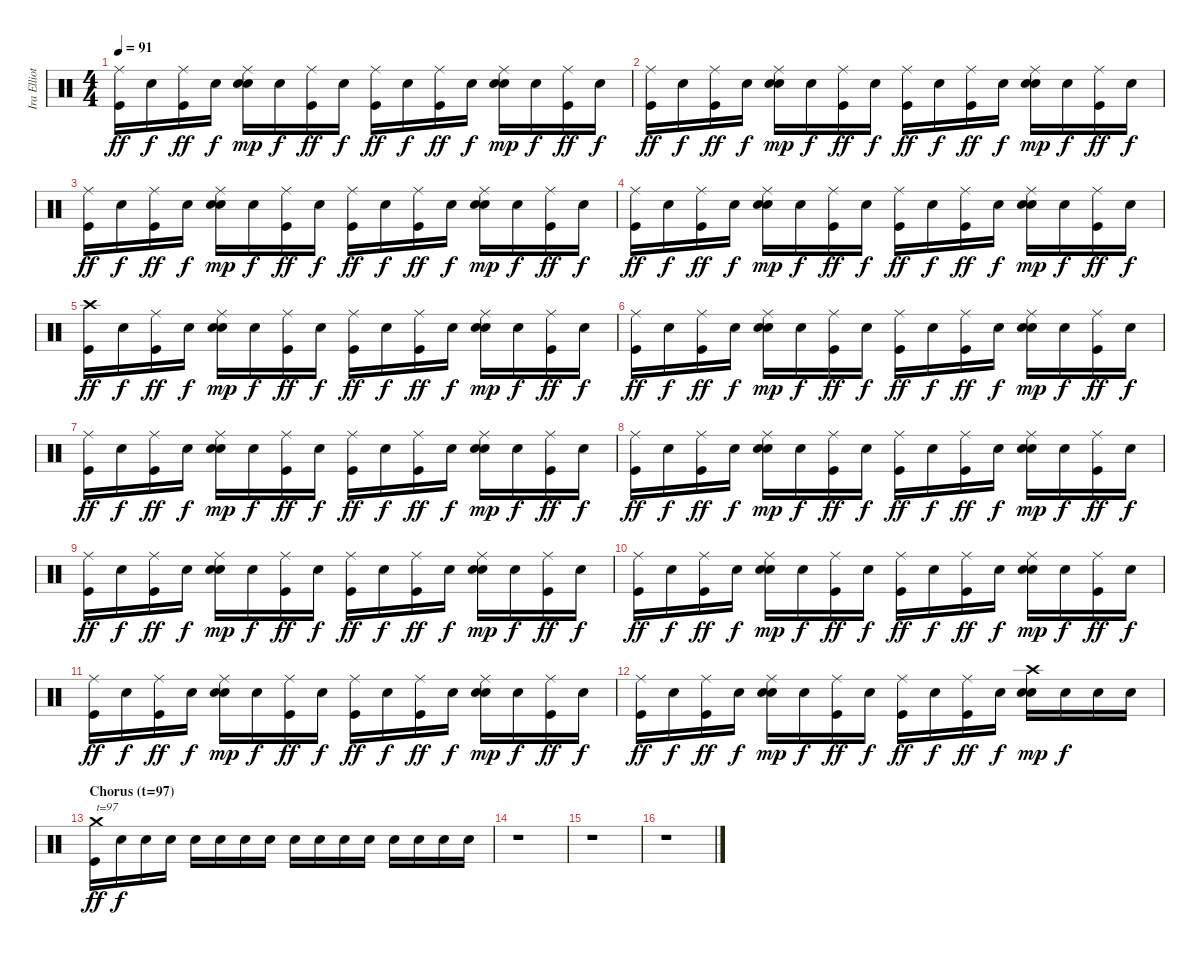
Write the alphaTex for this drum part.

\track ("Ira Elliot - Drums" "Ira Elliot") {instrument percussion}
\staff {score}
\articulation defaults
\ts (4 4)
\tempo 91
\clef neutral
\ks c
("Ride (middle)" "Kick (hit)").16{dy ff} "Snare (hit)".16{dy f} ("Ride (middle)" "Kick (hit)").16{dy ff} "Snare (hit)".16{dy f} ("Ride (middle)" "Electric Snare (hit)" "Snare (hit) 2").16{dy mp} "Snare (hit)".16{dy f} ("Ride (middle)" "Kick (hit)").16{dy ff} "Snare (hit)".16{dy f} ("Ride (middle)" "Kick (hit)").16{dy ff} "Snare (hit)".16{dy f} ("Ride (middle)" "Kick (hit)").16{dy ff} "Snare (hit)".16{dy f} ("Ride (middle)" "Electric Snare (hit)" "Snare (hit) 2").16{dy mp} "Snare (hit)".16{dy f} ("Ride (middle)" "Kick (hit)").16{dy ff} "Snare (hit)".16{dy f} |
("Ride (middle)" "Kick (hit)").16{dy ff} "Snare (hit)".16{dy f} ("Ride (middle)" "Kick (hit)").16{dy ff} "Snare (hit)".16{dy f} ("Ride (middle)" "Electric Snare (hit)" "Snare (hit) 2").16{dy mp} "Snare (hit)".16{dy f} ("Ride (middle)" "Kick (hit)").16{dy ff} "Snare (hit)".16{dy f} ("Ride (middle)" "Kick (hit)").16{dy ff} "Snare (hit)".16{dy f} ("Ride (middle)" "Kick (hit)").16{dy ff} "Snare (hit)".16{dy f} ("Ride (middle)" "Electric Snare (hit)" "Snare (hit) 2").16{dy mp} "Snare (hit)".16{dy f} ("Ride (middle)" "Kick (hit)").16{dy ff} "Snare (hit)".16{dy f} |
("Ride (middle)" "Kick (hit)").16{dy ff} "Snare (hit)".16{dy f} ("Ride (middle)" "Kick (hit)").16{dy ff} "Snare (hit)".16{dy f} ("Ride (middle)" "Electric Snare (hit)" "Snare (hit) 2").16{dy mp} "Snare (hit)".16{dy f} ("Ride (middle)" "Kick (hit)").16{dy ff} "Snare (hit)".16{dy f} ("Ride (middle)" "Kick (hit)").16{dy ff} "Snare (hit)".16{dy f} ("Ride (middle)" "Kick (hit)").16{dy ff} "Snare (hit)".16{dy f} ("Ride (middle)" "Electric Snare (hit)" "Snare (hit) 2").16{dy mp} "Snare (hit)".16{dy f} ("Ride (middle)" "Kick (hit)").16{dy ff} "Snare (hit)".16{dy f} |
("Ride (middle)" "Kick (hit)").16{dy ff} "Snare (hit)".16{dy f} ("Ride (middle)" "Kick (hit)").16{dy ff} "Snare (hit)".16{dy f} ("Ride (middle)" "Electric Snare (hit)" "Snare (hit) 2").16{dy mp} "Snare (hit)".16{dy f} ("Ride (middle)" "Kick (hit)").16{dy ff} "Snare (hit)".16{dy f} ("Ride (middle)" "Kick (hit)").16{dy ff} "Snare (hit)".16{dy f} ("Ride (middle)" "Kick (hit)").16{dy ff} "Snare (hit)".16{dy f} ("Ride (middle)" "Electric Snare (hit)" "Snare (hit) 2").16{dy mp} "Snare (hit)".16{dy f} ("Ride (middle)" "Kick (hit)").16{dy ff} "Snare (hit)".16{dy f} |
("Crash high (hit)" "Kick (hit)").16{dy ff} "Snare (hit)".16{dy f} ("Ride (middle)" "Kick (hit)").16{dy ff} "Snare (hit)".16{dy f} ("Ride (middle)" "Electric Snare (hit)" "Snare (hit) 2").16{dy mp} "Snare (hit)".16{dy f} ("Ride (middle)" "Kick (hit)").16{dy ff} "Snare (hit)".16{dy f} ("Ride (middle)" "Kick (hit)").16{dy ff} "Snare (hit)".16{dy f} ("Ride (middle)" "Kick (hit)").16{dy ff} "Snare (hit)".16{dy f} ("Ride (middle)" "Electric Snare (hit)" "Snare (hit) 2").16{dy mp} "Snare (hit)".16{dy f} ("Ride (middle)" "Kick (hit)").16{dy ff} "Snare (hit)".16{dy f} |
("Ride (middle)" "Kick (hit)").16{dy ff} "Snare (hit)".16{dy f} ("Ride (middle)" "Kick (hit)").16{dy ff} "Snare (hit)".16{dy f} ("Ride (middle)" "Electric Snare (hit)" "Snare (hit) 2").16{dy mp} "Snare (hit)".16{dy f} ("Ride (middle)" "Kick (hit)").16{dy ff} "Snare (hit)".16{dy f} ("Ride (middle)" "Kick (hit)").16{dy ff} "Snare (hit)".16{dy f} ("Ride (middle)" "Kick (hit)").16{dy ff} "Snare (hit)".16{dy f} ("Ride (middle)" "Electric Snare (hit)" "Snare (hit) 2").16{dy mp} "Snare (hit)".16{dy f} ("Ride (middle)" "Kick (hit)").16{dy ff} "Snare (hit)".16{dy f} |
("Ride (middle)" "Kick (hit)").16{dy ff} "Snare (hit)".16{dy f} ("Ride (middle)" "Kick (hit)").16{dy ff} "Snare (hit)".16{dy f} ("Ride (middle)" "Electric Snare (hit)" "Snare (hit) 2").16{dy mp} "Snare (hit)".16{dy f} ("Ride (middle)" "Kick (hit)").16{dy ff} "Snare (hit)".16{dy f} ("Ride (middle)" "Kick (hit)").16{dy ff} "Snare (hit)".16{dy f} ("Ride (middle)" "Kick (hit)").16{dy ff} "Snare (hit)".16{dy f} ("Ride (middle)" "Electric Snare (hit)" "Snare (hit) 2").16{dy mp} "Snare (hit)".16{dy f} ("Ride (middle)" "Kick (hit)").16{dy ff} "Snare (hit)".16{dy f} |
("Ride (middle)" "Kick (hit)").16{dy ff} "Snare (hit)".16{dy f} ("Ride (middle)" "Kick (hit)").16{dy ff} "Snare (hit)".16{dy f} ("Ride (middle)" "Electric Snare (hit)" "Snare (hit) 2").16{dy mp} "Snare (hit)".16{dy f} ("Ride (middle)" "Kick (hit)").16{dy ff} "Snare (hit)".16{dy f} ("Ride (middle)" "Kick (hit)").16{dy ff} "Snare (hit)".16{dy f} ("Ride (middle)" "Kick (hit)").16{dy ff} "Snare (hit)".16{dy f} ("Ride (middle)" "Electric Snare (hit)" "Snare (hit) 2").16{dy mp} "Snare (hit)".16{dy f} ("Ride (middle)" "Kick (hit)").16{dy ff} "Snare (hit)".16{dy f} |
("Ride (middle)" "Kick (hit)").16{dy ff} "Snare (hit)".16{dy f} ("Ride (middle)" "Kick (hit)").16{dy ff} "Snare (hit)".16{dy f} ("Ride (middle)" "Electric Snare (hit)" "Snare (hit) 2").16{dy mp} "Snare (hit)".16{dy f} ("Ride (middle)" "Kick (hit)").16{dy ff} "Snare (hit)".16{dy f} ("Ride (middle)" "Kick (hit)").16{dy ff} "Snare (hit)".16{dy f} ("Ride (middle)" "Kick (hit)").16{dy ff} "Snare (hit)".16{dy f} ("Ride (middle)" "Electric Snare (hit)" "Snare (hit) 2").16{dy mp} "Snare (hit)".16{dy f} ("Ride (middle)" "Kick (hit)").16{dy ff} "Snare (hit)".16{dy f} |
("Ride (middle)" "Kick (hit)").16{dy ff} "Snare (hit)".16{dy f} ("Ride (middle)" "Kick (hit)").16{dy ff} "Snare (hit)".16{dy f} ("Ride (middle)" "Electric Snare (hit)" "Snare (hit) 2").16{dy mp} "Snare (hit)".16{dy f} ("Ride (middle)" "Kick (hit)").16{dy ff} "Snare (hit)".16{dy f} ("Ride (middle)" "Kick (hit)").16{dy ff} "Snare (hit)".16{dy f} ("Ride (middle)" "Kick (hit)").16{dy ff} "Snare (hit)".16{dy f} ("Ride (middle)" "Electric Snare (hit)" "Snare (hit) 2").16{dy mp} "Snare (hit)".16{dy f} ("Ride (middle)" "Kick (hit)").16{dy ff} "Snare (hit)".16{dy f} |
("Ride (middle)" "Kick (hit)").16{dy ff} "Snare (hit)".16{dy f} ("Ride (middle)" "Kick (hit)").16{dy ff} "Snare (hit)".16{dy f} ("Ride (middle)" "Electric Snare (hit)" "Snare (hit) 2").16{dy mp} "Snare (hit)".16{dy f} ("Ride (middle)" "Kick (hit)").16{dy ff} "Snare (hit)".16{dy f} ("Ride (middle)" "Kick (hit)").16{dy ff} "Snare (hit)".16{dy f} ("Ride (middle)" "Kick (hit)").16{dy ff} "Snare (hit)".16{dy f} ("Ride (middle)" "Electric Snare (hit)" "Snare (hit) 2").16{dy mp} "Snare (hit)".16{dy f} ("Ride (middle)" "Kick (hit)").16{dy ff} "Snare (hit)".16{dy f} |
("Ride (middle)" "Kick (hit)").16{dy ff} "Snare (hit)".16{dy f} ("Ride (middle)" "Kick (hit)").16{dy ff} "Snare (hit)".16{dy f} ("Ride (middle)" "Electric Snare (hit)" "Snare (hit) 2").16{dy mp} "Snare (hit)".16{dy f} ("Ride (middle)" "Kick (hit)").16{dy ff} "Snare (hit)".16{dy f} ("Ride (middle)" "Kick (hit)").16{dy ff} "Snare (hit)".16{dy f} ("Ride (middle)" "Kick (hit)").16{dy ff} "Snare (hit)".16{dy f} ("Crash high (hit)" "Electric Snare (hit)" "Snare (hit) 2").16{dy mp} "Snare (hit)".16{dy f} "Snare (hit)".16 "Snare (hit)".16 |
\section ("" "Chorus (t=97)")
("Crash medium (hit)" "Kick (hit)").16{txt "t=97" dy ff volume 16 balance 8} "Snare (hit)".16{dy f} "Snare (hit)".16 "Snare (hit)".16 "Snare (hit)".16 "Snare (hit)".16 "Snare (hit)".16 "Snare (hit)".16 "Snare (hit)".16 "Snare (hit)".16 "Snare (hit)".16 "Snare (hit)".16 "Snare (hit)".16 "Snare (hit)".16 "Snare (hit)".16 "Snare (hit)".16 |
r.1 |
r.1 |
r.1
